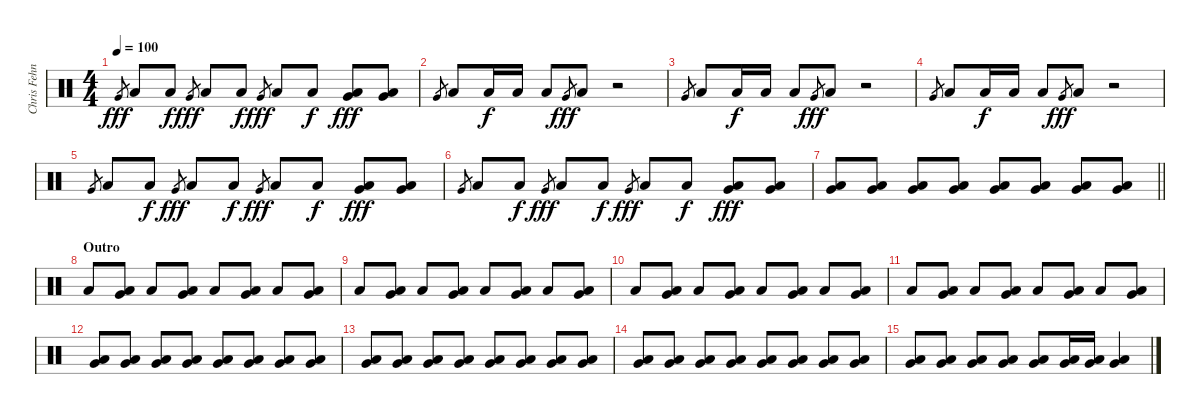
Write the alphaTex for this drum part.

\track ("Chris Fehn" "Chris Fehn") {instrument percussion}
\staff {score}
\articulation defaults
\ts (4 4)
\tempo 100
\clef neutral
\ks c "Very Low Tom (hit)".8{gr dy fff} "Low Floor Tom (hit)".8 "Low Floor Tom (hit)".8{dy f} "Very Low Tom (hit)".8{gr dy fff} "Low Floor Tom (hit)".8 "Low Floor Tom (hit)".8{dy f} "Very Low Tom (hit)".8{gr dy fff} "Low Floor Tom (hit)".8 "Low Floor Tom (hit)".8{dy f}
("Very Low Tom (hit)" "Low Floor Tom (hit)").8{dy fff} ("Very Low Tom (hit)" "Low Floor Tom (hit)").8 |
"Very Low Tom (hit)".8{gr} "Low Floor Tom (hit)".8 "Low Floor Tom (hit)".16{dy f} "Low Floor Tom (hit)".16 "Low Floor Tom (hit)".8 "Very Low Tom (hit)".8{gr dy fff} "Low Floor Tom (hit)".8 r.2 |
"Very Low Tom (hit)".8{gr} "Low Floor Tom (hit)".8 "Low Floor Tom (hit)".16{dy f} "Low Floor Tom (hit)".16 "Low Floor Tom (hit)".8 "Very Low Tom (hit)".8{gr dy fff} "Low Floor Tom (hit)".8 r.2 |
"Very Low Tom (hit)".8{gr} "Low Floor Tom (hit)".8 "Low Floor Tom (hit)".16{dy f} "Low Floor Tom (hit)".16 "Low Floor Tom (hit)".8 "Very Low Tom (hit)".8{gr dy fff} "Low Floor Tom (hit)".8 r.2 |
"Very Low Tom (hit)".8{gr} "Low Floor Tom (hit)".8 "Low Floor Tom (hit)".8{dy f} "Very Low Tom (hit)".8{gr dy fff} "Low Floor Tom (hit)".8 "Low Floor Tom (hit)".8{dy f} "Very Low Tom (hit)".8{gr dy fff} "Low Floor Tom (hit)".8 "Low Floor Tom (hit)".8{dy f} ("Very Low Tom (hit)" "Low Floor Tom (hit)").8{dy fff} ("Very Low Tom (hit)" "Low Floor Tom (hit)").8 |
"Very Low Tom (hit)".8{gr} "Low Floor Tom (hit)".8 "Low Floor Tom (hit)".8{dy f} "Very Low Tom (hit)".8{gr dy fff} "Low Floor Tom (hit)".8 "Low Floor Tom (hit)".8{dy f} "Very Low Tom (hit)".8{gr dy fff} "Low Floor Tom (hit)".8 "Low Floor Tom (hit)".8{dy f} ("Very Low Tom (hit)" "Low Floor Tom (hit)").8{dy fff} ("Very Low Tom (hit)" "Low Floor Tom (hit)").8 |
\barLineRight lightlight
("Very Low Tom (hit)" "Low Floor Tom (hit)").8 ("Very Low Tom (hit)" "Low Floor Tom (hit)").8 ("Very Low Tom (hit)" "Low Floor Tom (hit)").8 ("Very Low Tom (hit)" "Low Floor Tom (hit)").8 ("Very Low Tom (hit)" "Low Floor Tom (hit)").8 ("Very Low Tom (hit)" "Low Floor Tom (hit)").8 ("Very Low Tom (hit)" "Low Floor Tom (hit)").8 ("Very Low Tom (hit)" "Low Floor Tom (hit)").8 |
\section ("" "Outro")
"Low Floor Tom (hit)".8 ("Very Low Tom (hit)" "Low Floor Tom (hit)").8 "Low Floor Tom (hit)".8 ("Very Low Tom (hit)" "Low Floor Tom (hit)").8 "Low Floor Tom (hit)".8 ("Very Low Tom (hit)" "Low Floor Tom (hit)").8 "Low Floor Tom (hit)".8 ("Very Low Tom (hit)" "Low Floor Tom (hit)").8 |
"Low Floor Tom (hit)".8 ("Very Low Tom (hit)" "Low Floor Tom (hit)").8 "Low Floor Tom (hit)".8 ("Very Low Tom (hit)" "Low Floor Tom (hit)").8 "Low Floor Tom (hit)".8 ("Very Low Tom (hit)" "Low Floor Tom (hit)").8 "Low Floor Tom (hit)".8 ("Very Low Tom (hit)" "Low Floor Tom (hit)").8 |
"Low Floor Tom (hit)".8 ("Very Low Tom (hit)" "Low Floor Tom (hit)").8 "Low Floor Tom (hit)".8 ("Very Low Tom (hit)" "Low Floor Tom (hit)").8 "Low Floor Tom (hit)".8 ("Very Low Tom (hit)" "Low Floor Tom (hit)").8 "Low Floor Tom (hit)".8 ("Very Low Tom (hit)" "Low Floor Tom (hit)").8 |
"Low Floor Tom (hit)".8 ("Very Low Tom (hit)" "Low Floor Tom (hit)").8 "Low Floor Tom (hit)".8 ("Very Low Tom (hit)" "Low Floor Tom (hit)").8 "Low Floor Tom (hit)".8 ("Very Low Tom (hit)" "Low Floor Tom (hit)").8 "Low Floor Tom (hit)".8 ("Very Low Tom (hit)" "Low Floor Tom (hit)").8 |
("Very Low Tom (hit)" "Low Floor Tom (hit)").8 ("Very Low Tom (hit)" "Low Floor Tom (hit)").8 ("Very Low Tom (hit)" "Low Floor Tom (hit)").8 ("Very Low Tom (hit)" "Low Floor Tom (hit)").8 ("Very Low Tom (hit)" "Low Floor Tom (hit)").8 ("Very Low Tom (hit)" "Low Floor Tom (hit)").8 ("Very Low Tom (hit)" "Low Floor Tom (hit)").8 ("Very Low Tom (hit)" "Low Floor Tom (hit)").8 |
("Very Low Tom (hit)" "Low Floor Tom (hit)").8 ("Very Low Tom (hit)" "Low Floor Tom (hit)").8 ("Very Low Tom (hit)" "Low Floor Tom (hit)").8 ("Very Low Tom (hit)" "Low Floor Tom (hit)").8 ("Very Low Tom (hit)" "Low Floor Tom (hit)").8 ("Very Low Tom (hit)" "Low Floor Tom (hit)").8 ("Very Low Tom (hit)" "Low Floor Tom (hit)").8 ("Very Low Tom (hit)" "Low Floor Tom (hit)").8 |
("Very Low Tom (hit)" "Low Floor Tom (hit)").8 ("Very Low Tom (hit)" "Low Floor Tom (hit)").8 ("Very Low Tom (hit)" "Low Floor Tom (hit)").8 ("Very Low Tom (hit)" "Low Floor Tom (hit)").8 ("Very Low Tom (hit)" "Low Floor Tom (hit)").8 ("Very Low Tom (hit)" "Low Floor Tom (hit)").8 ("Very Low Tom (hit)" "Low Floor Tom (hit)").8 ("Very Low Tom (hit)" "Low Floor Tom (hit)").8 |
("Very Low Tom (hit)" "Low Floor Tom (hit)").8 ("Very Low Tom (hit)" "Low Floor Tom (hit)").8 ("Very Low Tom (hit)" "Low Floor Tom (hit)").8 ("Very Low Tom (hit)" "Low Floor Tom (hit)").8 ("Very Low Tom (hit)" "Low Floor Tom (hit)").8 ("Very Low Tom (hit)" "Low Floor Tom (hit)").16 ("Very Low Tom (hit)" "Low Floor Tom (hit)").16 ("Very Low Tom (hit)" "Low Floor Tom (hit)").4
